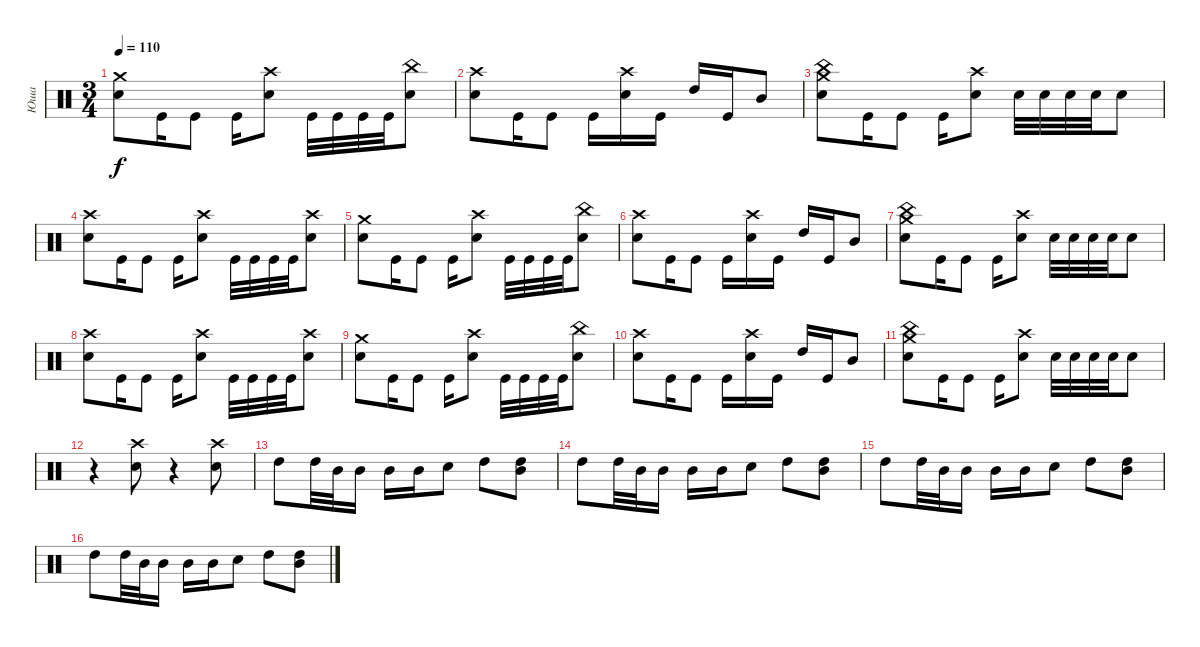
\track ("Юша" "Юша") {instrument percussion}
\staff {score}
\articulation defaults
\ts (3 4)
\tempo 110
\clef neutral
\ks c
("Crash medium (hit)" "Snare (hit) 2").8{dy f} "Kick (hit)".16 "Kick (hit)".8 "Kick (hit)".16 ("Snare (hit) 2" "Crash high (hit)").8 "Kick (hit)".32 "Kick (hit)".32 "Kick (hit)".32 "Kick (hit)".32 ("Snare (hit) 2" "China (hit)").8 |
("Crash high (hit)" "Snare (hit) 2").8 "Kick (hit)".16 "Kick (hit)".8 "Kick (hit)".16 ("Snare (hit) 2" "Crash high (hit)").16 "Kick (hit)".16 "High Tom (hit)".16 "Kick (hit)".16 "Mid Tom (hit)".8 |
("Crash medium (hit)" "Snare (hit) 2" "China (hit)").8 "Kick (hit)".16 "Kick (hit)".8 "Kick (hit)".16 ("Snare (hit) 2" "Crash high (hit)").8 "Snare (hit) 2".32 "Snare (hit) 2".32 "Snare (hit) 2".32 "Snare (hit) 2".32 "Snare (hit) 2".8 |
("Crash high (hit)" "Snare (hit) 2").8 "Kick (hit)".16 "Kick (hit)".8 "Kick (hit)".16 ("Snare (hit) 2" "Crash high (hit)").8 "Kick (hit)".32 "Kick (hit)".32 "Kick (hit)".32 "Kick (hit)".32 ("Snare (hit) 2" "Crash high (hit)").8 |
("Crash medium (hit)" "Snare (hit) 2").8 "Kick (hit)".16 "Kick (hit)".8 "Kick (hit)".16 ("Snare (hit) 2" "Crash high (hit)").8 "Kick (hit)".32 "Kick (hit)".32 "Kick (hit)".32 "Kick (hit)".32 ("Snare (hit) 2" "China (hit)").8 |
("Crash high (hit)" "Snare (hit) 2").8 "Kick (hit)".16 "Kick (hit)".8 "Kick (hit)".16 ("Snare (hit) 2" "Crash high (hit)").16 "Kick (hit)".16 "High Tom (hit)".16 "Kick (hit)".16 "Mid Tom (hit)".8 |
("Crash medium (hit)" "Snare (hit) 2" "China (hit)").8 "Kick (hit)".16 "Kick (hit)".8 "Kick (hit)".16 ("Snare (hit) 2" "Crash high (hit)").8 "Snare (hit) 2".32 "Snare (hit) 2".32 "Snare (hit) 2".32 "Snare (hit) 2".32 "Snare (hit) 2".8 |
("Crash high (hit)" "Snare (hit) 2").8 "Kick (hit)".16 "Kick (hit)".8 "Kick (hit)".16 ("Snare (hit) 2" "Crash high (hit)").8 "Kick (hit)".32 "Kick (hit)".32 "Kick (hit)".32 "Kick (hit)".32 ("Snare (hit) 2" "Crash high (hit)").8 |
("Crash medium (hit)" "Snare (hit) 2").8 "Kick (hit)".16 "Kick (hit)".8 "Kick (hit)".16 ("Snare (hit) 2" "Crash high (hit)").8 "Kick (hit)".32 "Kick (hit)".32 "Kick (hit)".32 "Kick (hit)".32 ("Snare (hit) 2" "China (hit)").8 |
("Crash high (hit)" "Snare (hit) 2").8 "Kick (hit)".16 "Kick (hit)".8 "Kick (hit)".16 ("Snare (hit) 2" "Crash high (hit)").16 "Kick (hit)".16 "High Tom (hit)".16 "Kick (hit)".16 "Mid Tom (hit)".8 |
("Crash medium (hit)" "Snare (hit) 2" "China (hit)").8 "Kick (hit)".16 "Kick (hit)".8 "Kick (hit)".16 ("Snare (hit) 2" "Crash high (hit)").8 "Snare (hit) 2".32 "Snare (hit) 2".32 "Snare (hit) 2".32 "Snare (hit) 2".32 "Snare (hit) 2".8 |
r.4 ("Snare (hit) 2" "Crash high (hit)").8 r.4 ("Snare (hit) 2" "Crash high (hit)").8 |
"High Tom (hit)".8 "High Tom (hit)".32 "Mid Tom (hit)".32 "Mid Tom (hit)".16 "Mid Tom (hit)".16 "Mid Tom (hit)".16 "Snare (hit) 2".8 "High Tom (hit)".8 ("High Tom (hit)" "Mid Tom (hit)").8 |
"High Tom (hit)".8 "High Tom (hit)".32 "Mid Tom (hit)".32 "Mid Tom (hit)".16 "Mid Tom (hit)".16 "Mid Tom (hit)".16 "Snare (hit) 2".8 "High Tom (hit)".8 ("High Tom (hit)" "Mid Tom (hit)").8 |
"High Tom (hit)".8 "High Tom (hit)".32 "Mid Tom (hit)".32 "Mid Tom (hit)".16 "Mid Tom (hit)".16 "Mid Tom (hit)".16 "Snare (hit) 2".8 "High Tom (hit)".8 ("High Tom (hit)" "Mid Tom (hit)").8 |
"High Tom (hit)".8 "High Tom (hit)".32 "Mid Tom (hit)".32 "Mid Tom (hit)".16 "Mid Tom (hit)".16 "Mid Tom (hit)".16 "Snare (hit) 2".8 "High Tom (hit)".8 ("High Tom (hit)" "Mid Tom (hit)").8
